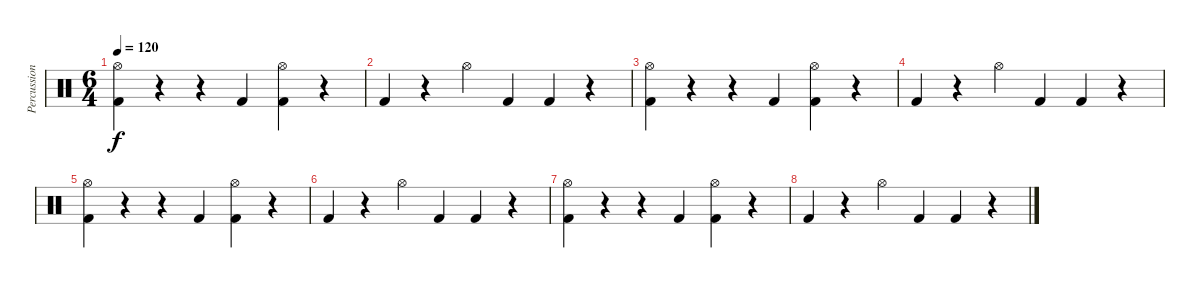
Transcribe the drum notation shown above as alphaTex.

\track ("Percussions" "Percussion") {instrument percussion}
\staff {score}
\articulation defaults
\ts (6 4)
\tempo 120
\clef neutral
\ks c
("Hi-Hat (open)" "Kick (hit) 2").4{dy f} r.4 r.4 "Kick (hit) 2".4 ("Hi-Hat (open)" "Kick (hit) 2").4 r.4 |
"Kick (hit) 2".4 r.4 "Hi-Hat (open)".4 "Kick (hit) 2".4 "Kick (hit) 2".4 r.4 |
("Hi-Hat (open)" "Kick (hit) 2").4 r.4 r.4 "Kick (hit) 2".4 ("Hi-Hat (open)" "Kick (hit) 2").4 r.4 |
"Kick (hit) 2".4 r.4 "Hi-Hat (open)".4 "Kick (hit) 2".4 "Kick (hit) 2".4 r.4 |
("Hi-Hat (open)" "Kick (hit) 2").4 r.4 r.4 "Kick (hit) 2".4 ("Hi-Hat (open)" "Kick (hit) 2").4 r.4 |
"Kick (hit) 2".4 r.4 "Hi-Hat (open)".4 "Kick (hit) 2".4 "Kick (hit) 2".4 r.4 |
("Hi-Hat (open)" "Kick (hit) 2").4 r.4 r.4 "Kick (hit) 2".4 ("Hi-Hat (open)" "Kick (hit) 2").4 r.4 |
"Kick (hit) 2".4 r.4 "Hi-Hat (open)".4 "Kick (hit) 2".4 "Kick (hit) 2".4 r.4
